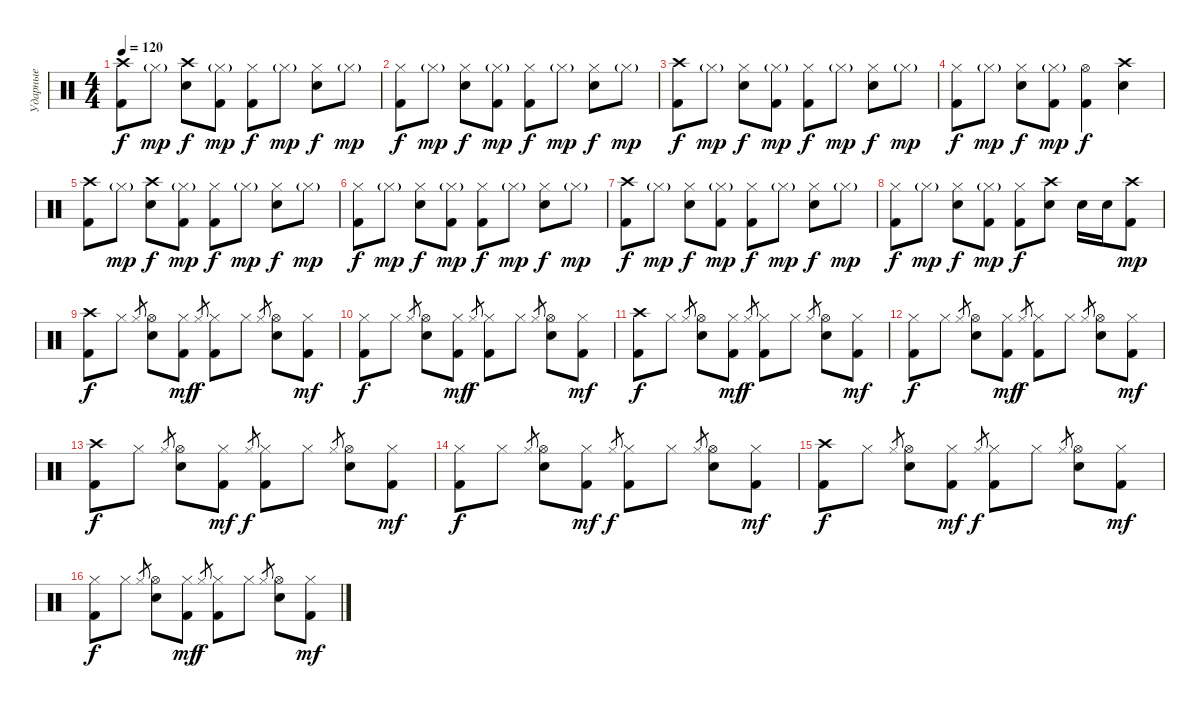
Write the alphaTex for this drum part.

\track ("Ударные" "Ударные") {instrument percussion}
\staff {score}
\articulation defaults
\ts (4 4)
\tempo 120
\clef neutral
\ks c
("Kick (hit) 2" "Crash high (hit)").8{dy f} "Hi-Hat (closed)"{g}.8{dy mp} ("Electric Snare (hit)" "Crash high (hit)").8{dy f} ("Kick (hit) 2" "Hi-Hat (closed)"{g}).8{dy mp} ("Kick (hit) 2" "Hi-Hat (closed)").8{dy f} "Hi-Hat (closed)"{g}.8{dy mp} ("Electric Snare (hit)" "Hi-Hat (closed)").8{dy f} "Hi-Hat (closed)"{g}.8{dy mp} |
("Kick (hit) 2" "Hi-Hat (closed)").8{dy f} "Hi-Hat (closed)"{g}.8{dy mp} ("Electric Snare (hit)" "Hi-Hat (closed)").8{dy f} ("Kick (hit) 2" "Hi-Hat (closed)"{g}).8{dy mp} ("Kick (hit) 2" "Hi-Hat (closed)").8{dy f} "Hi-Hat (closed)"{g}.8{dy mp} ("Electric Snare (hit)" "Hi-Hat (closed)").8{dy f} "Hi-Hat (closed)"{g}.8{dy mp} |
("Kick (hit) 2" "Crash high (hit)").8{dy f} "Hi-Hat (closed)"{g}.8{dy mp} ("Electric Snare (hit)" "Hi-Hat (closed)").8{dy f} ("Kick (hit) 2" "Hi-Hat (closed)"{g}).8{dy mp} ("Kick (hit) 2" "Hi-Hat (closed)").8{dy f} "Hi-Hat (closed)"{g}.8{dy mp} ("Electric Snare (hit)" "Hi-Hat (closed)").8{dy f} "Hi-Hat (closed)"{g}.8{dy mp} |
("Kick (hit) 2" "Hi-Hat (closed)").8{dy f} "Hi-Hat (closed)"{g}.8{dy mp} ("Electric Snare (hit)" "Hi-Hat (closed)").8{dy f} ("Kick (hit) 2" "Hi-Hat (closed)"{g}).8{dy mp} ("Kick (hit) 2" "Hi-Hat (open)").4{dy f} ("Electric Snare (hit)" "Crash high (hit)").4 |
("Kick (hit) 2" "Crash high (hit)").8 "Hi-Hat (closed)"{g}.8{dy mp} ("Electric Snare (hit)" "Crash high (hit)").8{dy f} ("Kick (hit) 2" "Hi-Hat (closed)"{g}).8{dy mp} ("Kick (hit) 2" "Hi-Hat (closed)").8{dy f} "Hi-Hat (closed)"{g}.8{dy mp} ("Electric Snare (hit)" "Hi-Hat (closed)").8{dy f} "Hi-Hat (closed)"{g}.8{dy mp} |
("Kick (hit) 2" "Hi-Hat (closed)").8{dy f} "Hi-Hat (closed)"{g}.8{dy mp} ("Electric Snare (hit)" "Hi-Hat (closed)").8{dy f} ("Kick (hit) 2" "Hi-Hat (closed)"{g}).8{dy mp} ("Kick (hit) 2" "Hi-Hat (closed)").8{dy f} "Hi-Hat (closed)"{g}.8{dy mp} ("Electric Snare (hit)" "Hi-Hat (closed)").8{dy f} "Hi-Hat (closed)"{g}.8{dy mp} |
("Kick (hit) 2" "Crash high (hit)").8{dy f} "Hi-Hat (closed)"{g}.8{dy mp} ("Electric Snare (hit)" "Hi-Hat (closed)").8{dy f} ("Kick (hit) 2" "Hi-Hat (closed)"{g}).8{dy mp} ("Kick (hit) 2" "Hi-Hat (closed)").8{dy f} "Hi-Hat (closed)"{g}.8{dy mp} ("Electric Snare (hit)" "Hi-Hat (closed)").8{dy f} "Hi-Hat (closed)"{g}.8{dy mp} |
("Kick (hit) 2" "Hi-Hat (closed)").8{dy f} "Hi-Hat (closed)"{g}.8{dy mp} ("Electric Snare (hit)" "Hi-Hat (closed)").8{dy f} ("Kick (hit) 2" "Hi-Hat (closed)"{g}).8{dy mp} ("Kick (hit) 2" "Hi-Hat (closed)").8{dy f} ("Electric Snare (hit)" "Crash high (hit)").8 "Electric Snare (hit)".16 "Electric Snare (hit)".16 ("Kick (hit) 2" "Crash high (hit)").8{dy mp} |
("Kick (hit) 2" "Crash high (hit)").8{dy f} "Hi-Hat (closed)".8 "Hi-Hat (closed)".8{gr} ("Electric Snare (hit)" "Hi-Hat (open)").8 ("Kick (hit) 2" "Hi-Hat (closed)").8{dy mf} "Hi-Hat (closed)".8{gr dy f} ("Kick (hit) 2" "Hi-Hat (closed)").8 "Hi-Hat (closed)".8 "Hi-Hat (closed)".8{gr} ("Electric Snare (hit)" "Hi-Hat (open)").8 ("Kick (hit) 2" "Hi-Hat (closed)").8{dy mf} |
("Kick (hit) 2" "Hi-Hat (closed)").8{dy f} "Hi-Hat (closed)".8 "Hi-Hat (closed)".8{gr} ("Electric Snare (hit)" "Hi-Hat (open)").8 ("Kick (hit) 2" "Hi-Hat (closed)").8{dy mf} "Hi-Hat (closed)".8{gr dy f} ("Kick (hit) 2" "Hi-Hat (closed)").8 "Hi-Hat (closed)".8 "Hi-Hat (closed)".8{gr} ("Electric Snare (hit)" "Hi-Hat (open)").8 ("Kick (hit) 2" "Hi-Hat (closed)").8{dy mf} |
("Kick (hit) 2" "Crash high (hit)").8{dy f} "Hi-Hat (closed)".8 "Hi-Hat (closed)".8{gr} ("Electric Snare (hit)" "Hi-Hat (open)").8 ("Kick (hit) 2" "Hi-Hat (closed)").8{dy mf} "Hi-Hat (closed)".8{gr dy f} ("Kick (hit) 2" "Hi-Hat (closed)").8 "Hi-Hat (closed)".8 "Hi-Hat (closed)".8{gr} ("Electric Snare (hit)" "Hi-Hat (open)").8 ("Kick (hit) 2" "Hi-Hat (closed)").8{dy mf} |
("Kick (hit) 2" "Hi-Hat (closed)").8{dy f} "Hi-Hat (closed)".8 "Hi-Hat (closed)".8{gr} ("Electric Snare (hit)" "Hi-Hat (open)").8 ("Kick (hit) 2" "Hi-Hat (closed)").8{dy mf} "Hi-Hat (closed)".8{gr dy f} ("Kick (hit) 2" "Hi-Hat (closed)").8 "Hi-Hat (closed)".8 "Hi-Hat (closed)".8{gr} ("Electric Snare (hit)" "Hi-Hat (open)").8 ("Kick (hit) 2" "Hi-Hat (closed)").8{dy mf} |
("Kick (hit) 2" "Crash high (hit)").8{dy f} "Hi-Hat (closed)".8 "Hi-Hat (closed)".8{gr} ("Electric Snare (hit)" "Hi-Hat (open)").8 ("Kick (hit) 2" "Hi-Hat (closed)").8{dy mf} "Hi-Hat (closed)".8{gr dy f} ("Kick (hit) 2" "Hi-Hat (closed)").8 "Hi-Hat (closed)".8 "Hi-Hat (closed)".8{gr} ("Electric Snare (hit)" "Hi-Hat (open)").8 ("Kick (hit) 2" "Hi-Hat (closed)").8{dy mf} |
("Kick (hit) 2" "Hi-Hat (closed)").8{dy f} "Hi-Hat (closed)".8 "Hi-Hat (closed)".8{gr} ("Electric Snare (hit)" "Hi-Hat (open)").8 ("Kick (hit) 2" "Hi-Hat (closed)").8{dy mf} "Hi-Hat (closed)".8{gr dy f} ("Kick (hit) 2" "Hi-Hat (closed)").8 "Hi-Hat (closed)".8 "Hi-Hat (closed)".8{gr} ("Electric Snare (hit)" "Hi-Hat (open)").8 ("Kick (hit) 2" "Hi-Hat (closed)").8{dy mf} |
("Kick (hit) 2" "Crash high (hit)").8{dy f} "Hi-Hat (closed)".8 "Hi-Hat (closed)".8{gr} ("Electric Snare (hit)" "Hi-Hat (open)").8 ("Kick (hit) 2" "Hi-Hat (closed)").8{dy mf} "Hi-Hat (closed)".8{gr dy f} ("Kick (hit) 2" "Hi-Hat (closed)").8 "Hi-Hat (closed)".8 "Hi-Hat (closed)".8{gr} ("Electric Snare (hit)" "Hi-Hat (open)").8 ("Kick (hit) 2" "Hi-Hat (closed)").8{dy mf} |
("Kick (hit) 2" "Hi-Hat (closed)").8{dy f} "Hi-Hat (closed)".8 "Hi-Hat (closed)".8{gr} ("Electric Snare (hit)" "Hi-Hat (open)").8 ("Kick (hit) 2" "Hi-Hat (closed)").8{dy mf} "Hi-Hat (closed)".8{gr dy f} ("Kick (hit) 2" "Hi-Hat (closed)").8 "Hi-Hat (closed)".8 "Hi-Hat (closed)".8{gr} ("Electric Snare (hit)" "Hi-Hat (open)").8 ("Kick (hit) 2" "Hi-Hat (closed)").8{dy mf}
